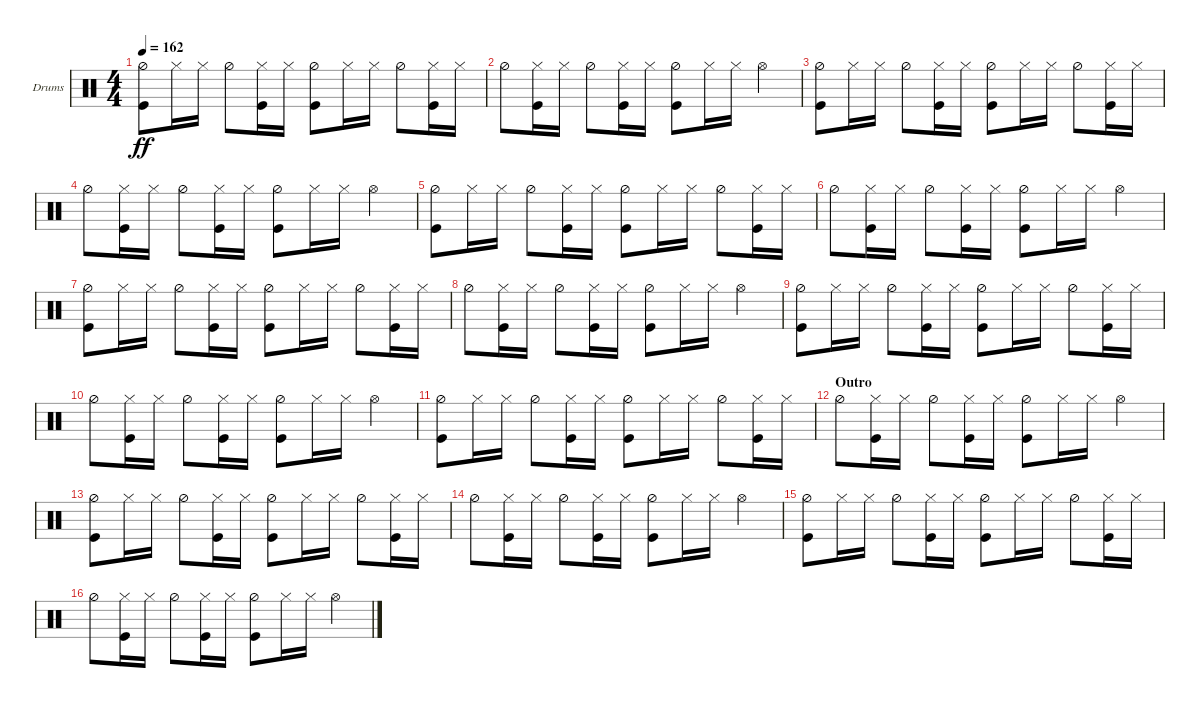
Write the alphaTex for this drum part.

\bracketExtendMode groupsimilarinstruments
\firstSystemTrackNameOrientation horizontal
\otherSystemsTrackNameOrientation horizontal
\track ("Drumkit" "Drums") {instrument percussion}
\staff {score}
\articulation defaults
\ts (4 4)
\tempo 162
\clef neutral
\ks c
("Hi-Hat (half)" "Kick (hit)").8{dy ff} "Hi-Hat (closed)".16 "Hi-Hat (closed)".16 "Hi-Hat (half)".8 ("Kick (hit)" "Hi-Hat (closed)").16 "Hi-Hat (closed)".16 ("Hi-Hat (half)" "Kick (hit)").8 "Hi-Hat (closed)".16 "Hi-Hat (closed)".16 "Hi-Hat (half)".8 ("Kick (hit)" "Hi-Hat (closed)").16 "Hi-Hat (closed)".16 |
"Hi-Hat (half)".8 ("Hi-Hat (closed)" "Kick (hit)").16 "Hi-Hat (closed)".16 "Hi-Hat (half)".8 ("Kick (hit)" "Hi-Hat (closed)").16 "Hi-Hat (closed)".16 ("Hi-Hat (half)" "Kick (hit)").8 "Hi-Hat (closed)".16 "Hi-Hat (closed)".16 "Hi-Hat (open)".4 |
("Hi-Hat (half)" "Kick (hit)").8 "Hi-Hat (closed)".16 "Hi-Hat (closed)".16 "Hi-Hat (half)".8 ("Kick (hit)" "Hi-Hat (closed)").16 "Hi-Hat (closed)".16 ("Hi-Hat (half)" "Kick (hit)").8 "Hi-Hat (closed)".16 "Hi-Hat (closed)".16 "Hi-Hat (half)".8 ("Kick (hit)" "Hi-Hat (closed)").16 "Hi-Hat (closed)".16 |
"Hi-Hat (half)".8 ("Hi-Hat (closed)" "Kick (hit)").16 "Hi-Hat (closed)".16 "Hi-Hat (half)".8 ("Kick (hit)" "Hi-Hat (closed)").16 "Hi-Hat (closed)".16 ("Hi-Hat (half)" "Kick (hit)").8 "Hi-Hat (closed)".16 "Hi-Hat (closed)".16 "Hi-Hat (open)".4 |
("Hi-Hat (half)" "Kick (hit)").8 "Hi-Hat (closed)".16 "Hi-Hat (closed)".16 "Hi-Hat (half)".8 ("Kick (hit)" "Hi-Hat (closed)").16 "Hi-Hat (closed)".16 ("Hi-Hat (half)" "Kick (hit)").8 "Hi-Hat (closed)".16 "Hi-Hat (closed)".16 "Hi-Hat (half)".8 ("Kick (hit)" "Hi-Hat (closed)").16 "Hi-Hat (closed)".16 |
"Hi-Hat (half)".8 ("Hi-Hat (closed)" "Kick (hit)").16 "Hi-Hat (closed)".16 "Hi-Hat (half)".8 ("Kick (hit)" "Hi-Hat (closed)").16 "Hi-Hat (closed)".16 ("Hi-Hat (half)" "Kick (hit)").8 "Hi-Hat (closed)".16 "Hi-Hat (closed)".16 "Hi-Hat (open)".4 |
("Hi-Hat (half)" "Kick (hit)").8 "Hi-Hat (closed)".16 "Hi-Hat (closed)".16 "Hi-Hat (half)".8 ("Kick (hit)" "Hi-Hat (closed)").16 "Hi-Hat (closed)".16 ("Hi-Hat (half)" "Kick (hit)").8 "Hi-Hat (closed)".16 "Hi-Hat (closed)".16 "Hi-Hat (half)".8 ("Kick (hit)" "Hi-Hat (closed)").16 "Hi-Hat (closed)".16 |
"Hi-Hat (half)".8 ("Hi-Hat (closed)" "Kick (hit)").16 "Hi-Hat (closed)".16 "Hi-Hat (half)".8 ("Kick (hit)" "Hi-Hat (closed)").16 "Hi-Hat (closed)".16 ("Hi-Hat (half)" "Kick (hit)").8 "Hi-Hat (closed)".16 "Hi-Hat (closed)".16 "Hi-Hat (open)".4 |
("Hi-Hat (half)" "Kick (hit)").8 "Hi-Hat (closed)".16 "Hi-Hat (closed)".16 "Hi-Hat (half)".8 ("Kick (hit)" "Hi-Hat (closed)").16 "Hi-Hat (closed)".16 ("Hi-Hat (half)" "Kick (hit)").8 "Hi-Hat (closed)".16 "Hi-Hat (closed)".16 "Hi-Hat (half)".8 ("Kick (hit)" "Hi-Hat (closed)").16 "Hi-Hat (closed)".16 |
"Hi-Hat (half)".8 ("Hi-Hat (closed)" "Kick (hit)").16 "Hi-Hat (closed)".16 "Hi-Hat (half)".8 ("Kick (hit)" "Hi-Hat (closed)").16 "Hi-Hat (closed)".16 ("Hi-Hat (half)" "Kick (hit)").8 "Hi-Hat (closed)".16 "Hi-Hat (closed)".16 "Hi-Hat (open)".4 |
("Hi-Hat (half)" "Kick (hit)").8 "Hi-Hat (closed)".16 "Hi-Hat (closed)".16 "Hi-Hat (half)".8 ("Kick (hit)" "Hi-Hat (closed)").16 "Hi-Hat (closed)".16 ("Hi-Hat (half)" "Kick (hit)").8 "Hi-Hat (closed)".16 "Hi-Hat (closed)".16 "Hi-Hat (half)".8 ("Kick (hit)" "Hi-Hat (closed)").16 "Hi-Hat (closed)".16 |
\section ("" "Outro")
"Hi-Hat (half)".8 ("Hi-Hat (closed)" "Kick (hit)").16 "Hi-Hat (closed)".16 "Hi-Hat (half)".8 ("Kick (hit)" "Hi-Hat (closed)").16 "Hi-Hat (closed)".16 ("Hi-Hat (half)" "Kick (hit)").8 "Hi-Hat (closed)".16 "Hi-Hat (closed)".16 "Hi-Hat (open)".4 |
("Hi-Hat (half)" "Kick (hit)").8 "Hi-Hat (closed)".16 "Hi-Hat (closed)".16 "Hi-Hat (half)".8 ("Kick (hit)" "Hi-Hat (closed)").16 "Hi-Hat (closed)".16 ("Hi-Hat (half)" "Kick (hit)").8 "Hi-Hat (closed)".16 "Hi-Hat (closed)".16 "Hi-Hat (half)".8 ("Kick (hit)" "Hi-Hat (closed)").16 "Hi-Hat (closed)".16 |
"Hi-Hat (half)".8 ("Hi-Hat (closed)" "Kick (hit)").16 "Hi-Hat (closed)".16 "Hi-Hat (half)".8 ("Kick (hit)" "Hi-Hat (closed)").16 "Hi-Hat (closed)".16 ("Hi-Hat (half)" "Kick (hit)").8 "Hi-Hat (closed)".16 "Hi-Hat (closed)".16 "Hi-Hat (open)".4 |
("Hi-Hat (half)" "Kick (hit)").8 "Hi-Hat (closed)".16 "Hi-Hat (closed)".16 "Hi-Hat (half)".8 ("Kick (hit)" "Hi-Hat (closed)").16 "Hi-Hat (closed)".16 ("Hi-Hat (half)" "Kick (hit)").8 "Hi-Hat (closed)".16 "Hi-Hat (closed)".16 "Hi-Hat (half)".8 ("Kick (hit)" "Hi-Hat (closed)").16 "Hi-Hat (closed)".16 |
"Hi-Hat (half)".8 ("Hi-Hat (closed)" "Kick (hit)").16 "Hi-Hat (closed)".16 "Hi-Hat (half)".8 ("Kick (hit)" "Hi-Hat (closed)").16 "Hi-Hat (closed)".16 ("Hi-Hat (half)" "Kick (hit)").8 "Hi-Hat (closed)".16 "Hi-Hat (closed)".16 "Hi-Hat (open)".4
